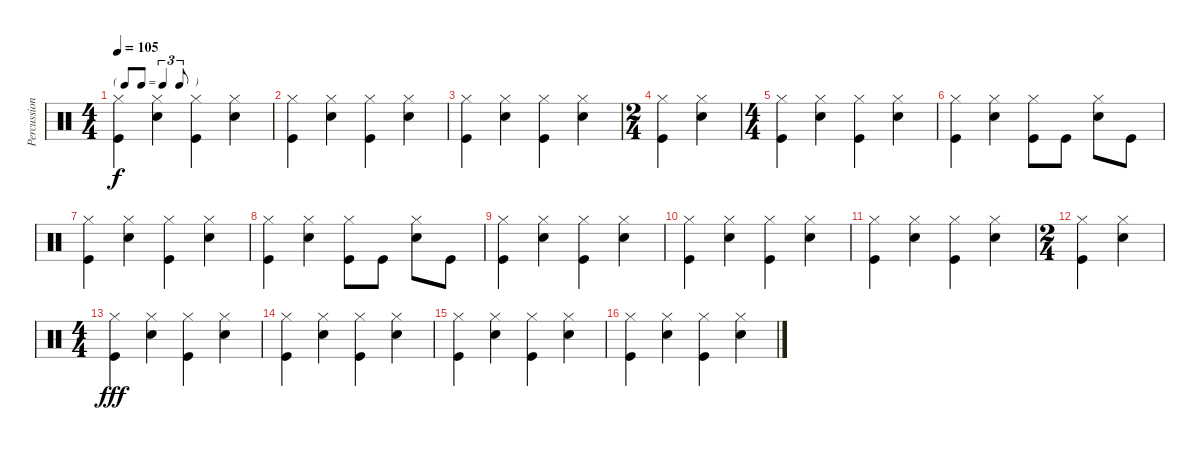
\track ("Percussion" "Percussion") {instrument percussion}
\staff {score}
\articulation defaults
\ts (4 4)
\tf triplet8th
\tempo 105
\clef neutral
\ks c
("Hi-Hat (closed)" "Kick (hit)").4{dy f} ("Hi-Hat (closed)" "Snare (hit) 2").4 ("Hi-Hat (closed)" "Kick (hit)").4 ("Hi-Hat (closed)" "Snare (hit) 2").4 |
("Hi-Hat (closed)" "Kick (hit)").4 ("Hi-Hat (closed)" "Snare (hit) 2").4 ("Hi-Hat (closed)" "Kick (hit)").4 ("Hi-Hat (closed)" "Snare (hit) 2").4 |
("Hi-Hat (closed)" "Kick (hit)").4 ("Hi-Hat (closed)" "Snare (hit) 2").4 ("Hi-Hat (closed)" "Kick (hit)").4 ("Hi-Hat (closed)" "Snare (hit) 2").4 |
\ts (2 4)
("Hi-Hat (closed)" "Kick (hit)").4 ("Hi-Hat (closed)" "Snare (hit) 2").4 |
\ts (4 4)
("Hi-Hat (closed)" "Kick (hit)").4 ("Hi-Hat (closed)" "Snare (hit) 2").4 ("Hi-Hat (closed)" "Kick (hit)").4 ("Hi-Hat (closed)" "Snare (hit) 2").4 |
("Hi-Hat (closed)" "Kick (hit)").4 ("Hi-Hat (closed)" "Snare (hit) 2").4 ("Hi-Hat (closed)" "Kick (hit)").8 "Kick (hit)".8 ("Hi-Hat (closed)" "Snare (hit) 2").8 "Kick (hit)".8 |
("Hi-Hat (closed)" "Kick (hit)").4 ("Hi-Hat (closed)" "Snare (hit) 2").4 ("Hi-Hat (closed)" "Kick (hit)").4 ("Hi-Hat (closed)" "Snare (hit) 2").4 |
("Hi-Hat (closed)" "Kick (hit)").4 ("Hi-Hat (closed)" "Snare (hit) 2").4 ("Hi-Hat (closed)" "Kick (hit)").8 "Kick (hit)".8 ("Hi-Hat (closed)" "Snare (hit) 2").8 "Kick (hit)".8 |
("Hi-Hat (closed)" "Kick (hit)").4 ("Hi-Hat (closed)" "Snare (hit) 2").4 ("Hi-Hat (closed)" "Kick (hit)").4 ("Hi-Hat (closed)" "Snare (hit) 2").4 |
("Hi-Hat (closed)" "Kick (hit)").4 ("Hi-Hat (closed)" "Snare (hit) 2").4 ("Hi-Hat (closed)" "Kick (hit)").4 ("Hi-Hat (closed)" "Snare (hit) 2").4 |
("Hi-Hat (closed)" "Kick (hit)").4 ("Hi-Hat (closed)" "Snare (hit) 2").4 ("Hi-Hat (closed)" "Kick (hit)").4 ("Hi-Hat (closed)" "Snare (hit) 2").4 |
\ts (2 4)
("Hi-Hat (closed)" "Kick (hit)").4 ("Hi-Hat (closed)" "Snare (hit) 2").4 |
\ts (4 4)
("Hi-Hat (closed)" "Kick (hit)").4{dy fff} ("Hi-Hat (closed)" "Snare (hit) 2").4 ("Hi-Hat (closed)" "Kick (hit)").4 ("Hi-Hat (closed)" "Snare (hit) 2").4 |
("Hi-Hat (closed)" "Kick (hit)").4 ("Hi-Hat (closed)" "Snare (hit) 2").4 ("Hi-Hat (closed)" "Kick (hit)").4 ("Hi-Hat (closed)" "Snare (hit) 2").4 |
("Hi-Hat (closed)" "Kick (hit)").4 ("Hi-Hat (closed)" "Snare (hit) 2").4 ("Hi-Hat (closed)" "Kick (hit)").4 ("Hi-Hat (closed)" "Snare (hit) 2").4 |
("Hi-Hat (closed)" "Kick (hit)").4 ("Hi-Hat (closed)" "Snare (hit) 2").4 ("Hi-Hat (closed)" "Kick (hit)").4 ("Hi-Hat (closed)" "Snare (hit) 2").4
